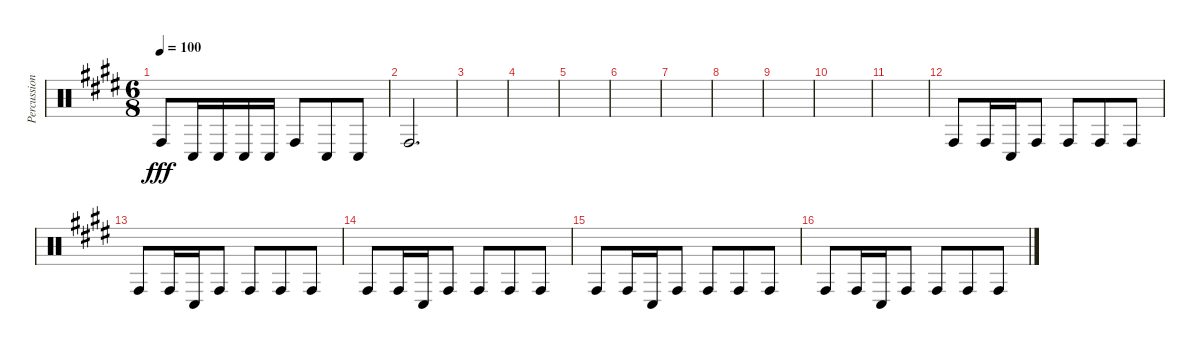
\track ("Percussion" "Percussion") {instrument percussion}
\staff {score}
\articulation defaults
\ts (6 8)
\tempo 100
\clef neutral
\ks c#minor "Conga high (hit)".8{dy fff} "Conga low (hit)".16 "Conga low (hit)".16 "Conga low (hit)".16 "Conga low (hit)".16 "Conga high (hit)".8 "Conga low (hit)".8 "Conga low (hit)".8
|
"Conga high (hit)".2{d} |
|
|
|
|
|
|
|
|
|
"Conga high (hit)".8 "Conga high (hit)".16 "Conga low (hit)".16 "Conga high (hit)".8 "Conga high (hit)".8 "Conga high (hit)".8 "Conga high (hit)".8 |
"Conga high (hit)".8 "Conga high (hit)".16 "Conga low (hit)".16 "Conga high (hit)".8 "Conga high (hit)".8 "Conga high (hit)".8 "Conga high (hit)".8 |
"Conga high (hit)".8 "Conga high (hit)".16 "Conga low (hit)".16 "Conga high (hit)".8 "Conga high (hit)".8 "Conga high (hit)".8 "Conga high (hit)".8 |
"Conga high (hit)".8 "Conga high (hit)".16 "Conga low (hit)".16 "Conga high (hit)".8 "Conga high (hit)".8 "Conga high (hit)".8 "Conga high (hit)".8 |
"Conga high (hit)".8 "Conga high (hit)".16 "Conga low (hit)".16 "Conga high (hit)".8 "Conga high (hit)".8 "Conga high (hit)".8 "Conga high (hit)".8
